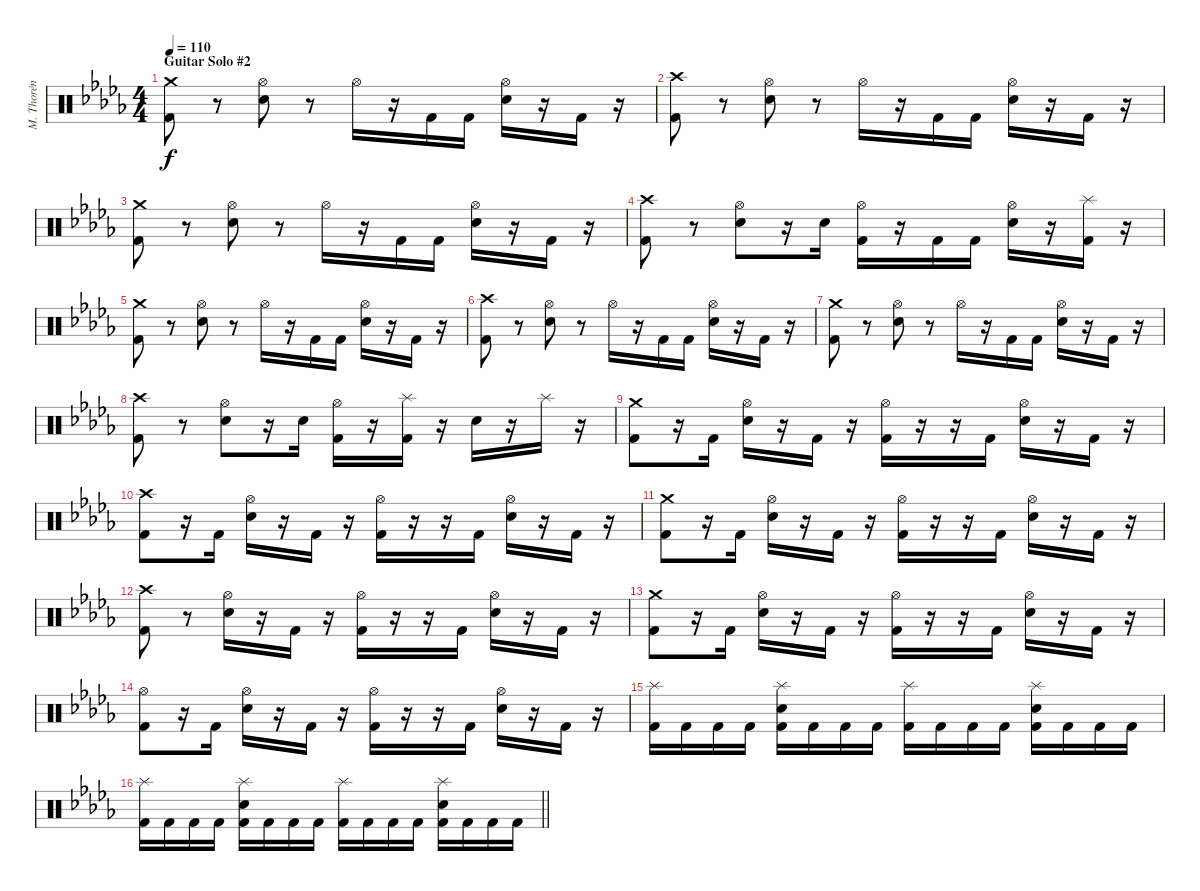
\track ("M. Thorén (Drums)" "M. Thorén ") {instrument percussion}
\staff {score}
\articulation defaults
\ts (4 4)
\section ("" "Guitar Solo #2")
\tempo 110
\clef neutral
\ks bbminor
("Crash medium (hit)" "Kick (hit) 2").8{dy f} r.8 ("Hi-Hat (open)" "Electric Snare (hit)").8 r.8 "Hi-Hat (open)".16 r.16 "Kick (hit) 2".16 "Kick (hit) 2".16 ("Hi-Hat (open)" "Electric Snare (hit)").16 r.16 "Kick (hit) 2".16 r.16 |
("Crash high (hit)" "Kick (hit) 2").8 r.8 ("Hi-Hat (open)" "Electric Snare (hit)").8 r.8 "Hi-Hat (open)".16 r.16 "Kick (hit) 2".16 "Kick (hit) 2".16 ("Hi-Hat (open)" "Electric Snare (hit)").16 r.16 "Kick (hit) 2".16 r.16 |
("Crash medium (hit)" "Kick (hit) 2").8 r.8 ("Hi-Hat (open)" "Electric Snare (hit)").8 r.8 "Hi-Hat (open)".16 r.16 "Kick (hit) 2".16 "Kick (hit) 2".16 ("Hi-Hat (open)" "Electric Snare (hit)").16 r.16 "Kick (hit) 2".16 r.16 |
("Crash high (hit)" "Kick (hit) 2").8 r.8 ("Hi-Hat (open)" "Electric Snare (hit)").8 r.16 "Electric Snare (hit)".16 ("Hi-Hat (open)" "Kick (hit) 2").16 r.16 "Kick (hit) 2".16 "Kick (hit) 2".16 ("Hi-Hat (open)" "Electric Snare (hit)").16 r.16 ("Splash (hit)" "Kick (hit) 2").16 r.16 |
("Crash medium (hit)" "Kick (hit) 2").8 r.8 ("Hi-Hat (open)" "Electric Snare (hit)").8 r.8 "Hi-Hat (open)".16 r.16 "Kick (hit) 2".16 "Kick (hit) 2".16 ("Hi-Hat (open)" "Electric Snare (hit)").16 r.16 "Kick (hit) 2".16 r.16 |
("Crash high (hit)" "Kick (hit) 2").8 r.8 ("Hi-Hat (open)" "Electric Snare (hit)").8 r.8 "Hi-Hat (open)".16 r.16 "Kick (hit) 2".16 "Kick (hit) 2".16 ("Hi-Hat (open)" "Electric Snare (hit)").16 r.16 "Kick (hit) 2".16 r.16 |
("Crash medium (hit)" "Kick (hit) 2").8 r.8 ("Hi-Hat (open)" "Electric Snare (hit)").8 r.8 "Hi-Hat (open)".16 r.16 "Kick (hit) 2".16 "Kick (hit) 2".16 ("Hi-Hat (open)" "Electric Snare (hit)").16 r.16 "Kick (hit) 2".16 r.16 |
("Crash high (hit)" "Kick (hit) 2").8 r.8 ("Hi-Hat (open)" "Electric Snare (hit)").8 r.16 "Electric Snare (hit)".16 ("Hi-Hat (open)" "Kick (hit) 2").16 r.16 ("Splash (hit)" "Kick (hit) 2").16 r.16 "Electric Snare (hit)".16 r.16 "Splash (hit)".16 r.16 |
("Crash medium (hit)" "Kick (hit) 2").8 r.16 "Kick (hit) 2".16 ("Hi-Hat (open)" "Electric Snare (hit)").16 r.16 "Kick (hit) 2".16 r.16 ("Hi-Hat (open)" "Kick (hit) 2").16 r.16 r.16 "Kick (hit) 2".16 ("Hi-Hat (open)" "Electric Snare (hit)").16 r.16 "Kick (hit) 2".16 r.16 |
("Crash high (hit)" "Kick (hit) 2").8 r.16 "Kick (hit) 2".16 ("Hi-Hat (open)" "Electric Snare (hit)").16 r.16 "Kick (hit) 2".16 r.16 ("Hi-Hat (open)" "Kick (hit) 2").16 r.16 r.16 "Kick (hit) 2".16 ("Hi-Hat (open)" "Electric Snare (hit)").16 r.16 "Kick (hit) 2".16 r.16 |
("Crash medium (hit)" "Kick (hit) 2").8 r.16 "Kick (hit) 2".16 ("Hi-Hat (open)" "Electric Snare (hit)").16 r.16 "Kick (hit) 2".16 r.16 ("Hi-Hat (open)" "Kick (hit) 2").16 r.16 r.16 "Kick (hit) 2".16 ("Hi-Hat (open)" "Electric Snare (hit)").16 r.16 "Kick (hit) 2".16 r.16 |
("Crash high (hit)" "Kick (hit) 2").8 r.8 ("Hi-Hat (open)" "Electric Snare (hit)").16 r.16 "Kick (hit) 2".16 r.16 ("Hi-Hat (open)" "Kick (hit) 2").16 r.16 r.16 "Kick (hit) 2".16 ("Hi-Hat (open)" "Electric Snare (hit)").16 r.16 "Kick (hit) 2".16 r.16 |
("Crash medium (hit)" "Kick (hit) 2").8 r.16 "Kick (hit) 2".16 ("Hi-Hat (open)" "Electric Snare (hit)").16 r.16 "Kick (hit) 2".16 r.16 ("Hi-Hat (open)" "Kick (hit) 2").16 r.16 r.16 "Kick (hit) 2".16 ("Hi-Hat (open)" "Electric Snare (hit)").16 r.16 "Kick (hit) 2".16 r.16 |
("Hi-Hat (open)" "Kick (hit) 2").8 r.16 "Kick (hit) 2".16 ("Hi-Hat (open)" "Electric Snare (hit)").16 r.16 "Kick (hit) 2".16 r.16 ("Hi-Hat (open)" "Kick (hit) 2").16 r.16 r.16 "Kick (hit) 2".16 ("Hi-Hat (open)" "Electric Snare (hit)").16 r.16 "Kick (hit) 2".16 r.16 |
("Splash (hit)" "Kick (hit) 2").16 "Kick (hit) 2".16 "Kick (hit) 2".16 "Kick (hit) 2".16 ("Splash (hit)" "Electric Snare (hit)" "Kick (hit) 2").16 "Kick (hit) 2".16 "Kick (hit) 2".16 "Kick (hit) 2".16 ("Splash (hit)" "Kick (hit) 2").16 "Kick (hit) 2".16 "Kick (hit) 2".16 "Kick (hit) 2".16 ("Splash (hit)" "Electric Snare (hit)" "Kick (hit) 2").16 "Kick (hit) 2".16 "Kick (hit) 2".16 "Kick (hit) 2".16 |
\barLineRight lightlight
("Splash (hit)" "Kick (hit) 2").16 "Kick (hit) 2".16 "Kick (hit) 2".16 "Kick (hit) 2".16 ("Splash (hit)" "Electric Snare (hit)" "Kick (hit) 2").16 "Kick (hit) 2".16 "Kick (hit) 2".16 "Kick (hit) 2".16 ("Splash (hit)" "Kick (hit) 2").16 "Kick (hit) 2".16 "Kick (hit) 2".16 "Kick (hit) 2".16 ("Splash (hit)" "Electric Snare (hit)" "Kick (hit) 2").16 "Kick (hit) 2".16 "Kick (hit) 2".16 "Kick (hit) 2".16
